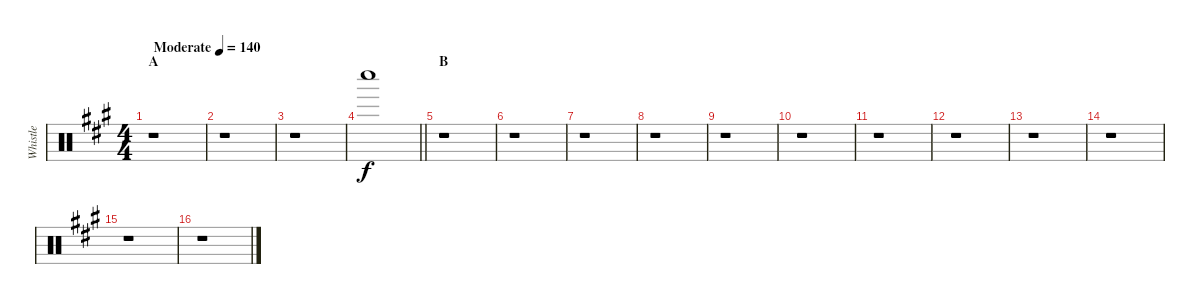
\track ("Whistle" "Whistle") {instrument percussion}
\staff {score}
\articulation defaults
\ts (4 4)
\section ("" "A")
\tempo (140 "Moderate")
\clef neutral
\ks a
r.1{dy f} |
r.1 |
r.1 |
\barLineRight lightlight "Whistle low (hit)".1
|
\section ("" "B")
r.1 |
r.1 |
r.1 |
r.1 |
r.1 |
r.1 |
r.1 |
r.1 |
r.1 |
r.1 |
r.1 |
r.1
